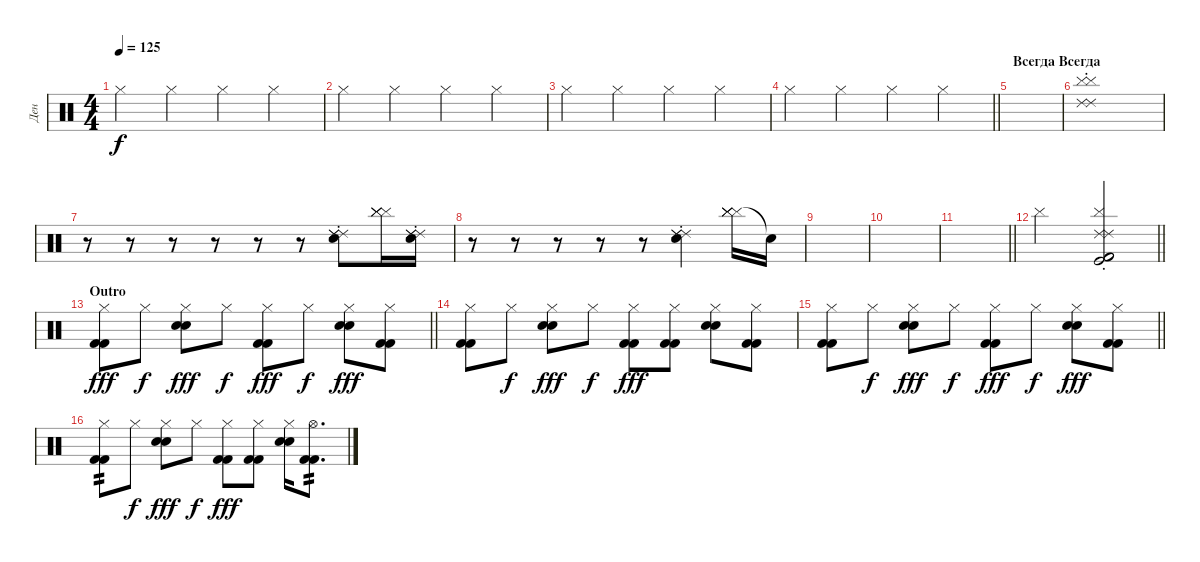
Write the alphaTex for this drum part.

\track ("Ден" "Ден") {instrument percussion}
\staff {score}
\articulation defaults
\ts (4 4)
\tempo 125
\clef neutral
\ks c "Hi-Hat (closed)".4{dy f} "Hi-Hat (closed)".4 "Hi-Hat (closed)".4 "Hi-Hat (closed)".4
|
"Hi-Hat (closed)".4 "Hi-Hat (closed)".4 "Hi-Hat (closed)".4 "Hi-Hat (closed)".4 |
"Hi-Hat (closed)".4 "Hi-Hat (closed)".4 "Hi-Hat (closed)".4 "Hi-Hat (closed)".4 |
\barLineRight lightlight "Hi-Hat (closed)".4 "Hi-Hat (closed)".4 "Hi-Hat (closed)".4 "Hi-Hat (closed)".4
|
\section ("" "Всегда Всегда")
|
("Ride (choke) 2" "Cymbal (hit)" "Ride (choke) 2" "Cymbal (hit)").1 |
r.8 r.8 r.8 r.8 r.8 r.8 ("Ride (choke) 2" "Snare (hit)" "Ride (choke) 2" "Ride (choke) 2").8 ("Cymbal (hit)" "Cymbal (hit)" "Cymbal (hit)" "Cymbal (hit)").16 ("Ride (choke) 2" "Snare (hit)" "Ride (choke) 2" "Ride (choke) 2").16 |
r.8 r.8 r.8 r.8 r.8 ("Ride (choke) 2" "Snare (hit)" "Ride (choke) 2" "Ride (choke) 2").4 ("Cymbal (hit)" "Cymbal (hit)" "Cymbal (hit)" "Cymbal (hit)").16 "Snare (hit)"{t}.16 |
|
|
\barLineRight lightlight
|
\section ("" "")
\barLineRight lightlight "Cymbal (hit)".2
("Kick (hit) 2" "Ride (choke) 2" "Cymbal (hit)" "Ride (choke) 2" "Kick (hit) 2" "Kick (hit)").2 |
\section ("" "Outro")
\barLineRight lightlight
("Hi-Hat (closed)" "Kick (hit) 2" "Kick (hit) 2").8{dy fff} "Hi-Hat (closed)".8{dy f} ("Hi-Hat (closed)" "Electric Snare (hit)" "Electric Snare (hit)").8{dy fff} "Hi-Hat (closed)".8{dy f} ("Hi-Hat (closed)" "Kick (hit) 2" "Kick (hit) 2").8{dy fff} "Hi-Hat (closed)".8{dy f} ("Hi-Hat (closed)" "Electric Snare (hit)" "Electric Snare (hit)").8{dy fff} ("Hi-Hat (closed)" "Kick (hit) 2" "Kick (hit) 2").8 |
("Hi-Hat (closed)" "Kick (hit) 2" "Kick (hit) 2").8 "Hi-Hat (closed)".8{dy f} ("Hi-Hat (closed)" "Electric Snare (hit)" "Electric Snare (hit)").8{dy fff} "Hi-Hat (closed)".8{dy f} ("Hi-Hat (closed)" "Kick (hit) 2" "Kick (hit) 2").8{dy fff} ("Hi-Hat (closed)" "Kick (hit) 2" "Kick (hit) 2").8 ("Hi-Hat (closed)" "Electric Snare (hit)" "Electric Snare (hit)").8 ("Hi-Hat (closed)" "Kick (hit) 2" "Kick (hit) 2").8 |
\barLineRight lightlight
("Hi-Hat (closed)" "Kick (hit) 2" "Kick (hit) 2").8 "Hi-Hat (closed)".8{dy f} ("Hi-Hat (closed)" "Electric Snare (hit)" "Electric Snare (hit)").8{dy fff} "Hi-Hat (closed)".8{dy f} ("Hi-Hat (closed)" "Kick (hit) 2" "Kick (hit) 2").8{dy fff} "Hi-Hat (closed)".8{dy f} ("Hi-Hat (closed)" "Electric Snare (hit)" "Electric Snare (hit)").8{dy fff} ("Hi-Hat (closed)" "Kick (hit) 2" "Kick (hit) 2").8 |
("Hi-Hat (closed)" "Kick (hit) 2" "Kick (hit) 2").8{tp 2} "Hi-Hat (closed)".8{dy f} ("Hi-Hat (closed)" "Electric Snare (hit)" "Electric Snare (hit)").8{dy fff} "Hi-Hat (closed)".8{dy f} ("Hi-Hat (closed)" "Kick (hit) 2" "Kick (hit) 2").8{dy fff} ("Hi-Hat (closed)" "Kick (hit) 2" "Kick (hit) 2").8 ("Hi-Hat (closed)" "Electric Snare (hit)" "Electric Snare (hit)").16 ("Hi-Hat (open)" "Kick (hit) 2" "Kick (hit) 2").8{d tp 2}
